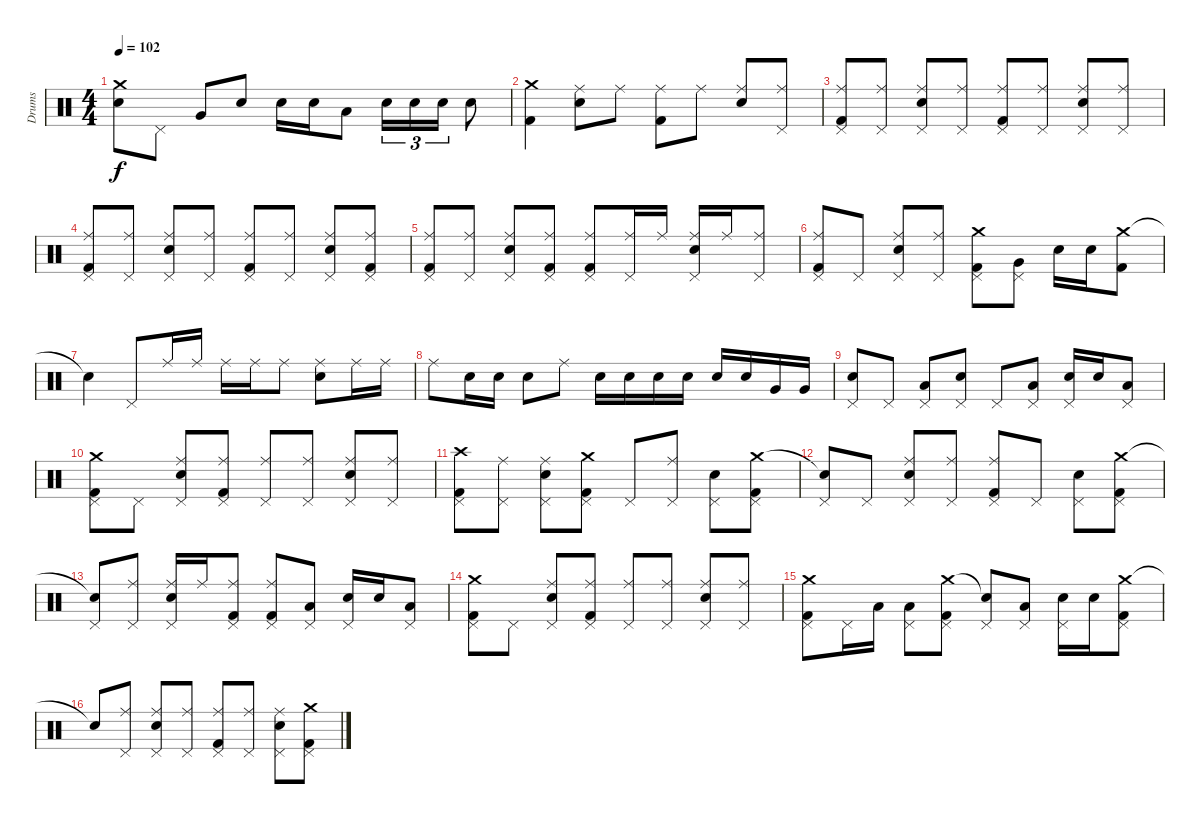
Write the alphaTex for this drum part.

\track ("Drums" "Drums") {instrument percussion}
\staff {score}
\articulation defaults
\ts (4 4)
\tempo 102
\clef neutral
\ks c
("Crash medium (hit)" "Snare (hit) 2").8{dy f} "Pedal Hi-Hat (hit)".8 "Very Low Tom (hit)".8 "Snare (hit) 2".8 "Snare (hit) 2".16 "Snare (hit) 2".16 "Low Tom (hit)".8 "Snare (hit) 2".16{tu (3 2)} "Snare (hit) 2".16{tu (3 2)} "Snare (hit) 2".16{tu (3 2)} "Snare (hit) 2".8 |
("Crash medium (hit)" "Kick (hit) 2").4 ("Ride (middle)" "Snare (hit) 2").8 "Ride (middle)".8 ("Ride (middle)" "Kick (hit) 2").8 "Ride (middle)".8 ("Ride (middle)" "Snare (hit) 2").8 ("Ride (middle)" "Pedal Hi-Hat (hit)").8 |
("Ride (middle)" "Pedal Hi-Hat (hit)" "Kick (hit) 2").8 ("Ride (middle)" "Pedal Hi-Hat (hit)").8 ("Ride (middle)" "Pedal Hi-Hat (hit)" "Snare (hit) 2").8 ("Ride (middle)" "Pedal Hi-Hat (hit)").8 ("Ride (middle)" "Pedal Hi-Hat (hit)" "Kick (hit) 2").8 ("Ride (middle)" "Pedal Hi-Hat (hit)").8 ("Ride (middle)" "Pedal Hi-Hat (hit)" "Snare (hit) 2").8 ("Ride (middle)" "Pedal Hi-Hat (hit)").8 |
("Ride (middle)" "Pedal Hi-Hat (hit)" "Kick (hit) 2").8 ("Ride (middle)" "Pedal Hi-Hat (hit)").8 ("Ride (middle)" "Pedal Hi-Hat (hit)" "Snare (hit) 2").8 ("Ride (middle)" "Pedal Hi-Hat (hit)").8 ("Ride (middle)" "Pedal Hi-Hat (hit)" "Kick (hit) 2").8 ("Ride (middle)" "Pedal Hi-Hat (hit)").8 ("Ride (middle)" "Pedal Hi-Hat (hit)" "Snare (hit) 2").8 ("Ride (middle)" "Pedal Hi-Hat (hit)" "Kick (hit) 2").8 |
("Ride (middle)" "Pedal Hi-Hat (hit)" "Kick (hit) 2").8 ("Ride (middle)" "Pedal Hi-Hat (hit)").8 ("Ride (middle)" "Pedal Hi-Hat (hit)" "Snare (hit) 2").8 ("Ride (middle)" "Pedal Hi-Hat (hit)" "Kick (hit) 2").8 ("Ride (middle)" "Pedal Hi-Hat (hit)" "Kick (hit) 2").8 ("Ride (middle)" "Pedal Hi-Hat (hit)").16 "Ride (middle)".16 ("Ride (middle)" "Pedal Hi-Hat (hit)" "Snare (hit) 2").16 "Ride (middle)".16 ("Ride (middle)" "Pedal Hi-Hat (hit)").8 |
("Ride (middle)" "Pedal Hi-Hat (hit)" "Kick (hit) 2").8 "Pedal Hi-Hat (hit)".8 ("Ride (middle)" "Pedal Hi-Hat (hit)" "Snare (hit) 2").8 ("Ride (middle)" "Pedal Hi-Hat (hit)").8 ("Crash medium (hit)" "Pedal Hi-Hat (hit)" "Kick (hit) 2").8 ("Pedal Hi-Hat (hit)" "Very Low Tom (hit)").8 "Snare (hit) 2".16 "Snare (hit) 2".16 ("Crash medium (hit)" "Kick (hit) 2").8 |
"Snare (hit)"{t}.4 "Pedal Hi-Hat (hit)".8 "Ride (middle)".16 "Ride (middle)".16 "Ride (middle)".16 "Ride (middle)".16 "Ride (middle)".8 ("Ride (middle)" "Snare (hit) 2").8 "Ride (middle)".16 "Ride (middle)".16 |
"Ride (middle)".8 "Snare (hit) 2".16 "Snare (hit) 2".16 "Snare (hit) 2".8 "Ride (middle)".8 "Snare (hit) 2".16 "Snare (hit) 2".16 "Snare (hit) 2".16 "Snare (hit) 2".16 "Snare (hit) 2".16 "Snare (hit) 2".16 "Very Low Tom (hit)".16 "Very Low Tom (hit)".16 |
("Pedal Hi-Hat (hit)" "Snare (hit) 2").8 "Pedal Hi-Hat (hit)".8 ("Pedal Hi-Hat (hit)" "Low Tom (hit)").8 ("Pedal Hi-Hat (hit)" "Snare (hit) 2").8 "Pedal Hi-Hat (hit)".8 ("Pedal Hi-Hat (hit)" "Low Tom (hit)").8 ("Pedal Hi-Hat (hit)" "Snare (hit) 2").16 "Snare (hit) 2".16 ("Pedal Hi-Hat (hit)" "Low Tom (hit)").8 |
("Crash medium (hit)" "Pedal Hi-Hat (hit)" "Kick (hit) 2").8 "Pedal Hi-Hat (hit)".8 ("Ride (middle)" "Pedal Hi-Hat (hit)" "Snare (hit) 2").8 ("Ride (middle)" "Pedal Hi-Hat (hit)" "Kick (hit) 2").8 ("Ride (middle)" "Pedal Hi-Hat (hit)").8 ("Ride (middle)" "Pedal Hi-Hat (hit)").8 ("Ride (middle)" "Pedal Hi-Hat (hit)" "Snare (hit) 2").8 ("Ride (middle)" "Pedal Hi-Hat (hit)").8 |
("Crash high (hit)" "Pedal Hi-Hat (hit)" "Kick (hit) 2").8 ("Ride (middle)" "Pedal Hi-Hat (hit)").8 ("Ride (middle)" "Pedal Hi-Hat (hit)" "Snare (hit) 2").8 ("Crash medium (hit)" "Pedal Hi-Hat (hit)" "Kick (hit) 2").8 "Pedal Hi-Hat (hit)".8 ("Ride (middle)" "Pedal Hi-Hat (hit)").8 ("Pedal Hi-Hat (hit)" "Snare (hit) 2").8 ("Crash medium (hit)" "Pedal Hi-Hat (hit)" "Kick (hit) 2").8 |
("Snare (hit)"{t} "Pedal Hi-Hat (hit)").8 "Pedal Hi-Hat (hit)".8 ("Ride (middle)" "Pedal Hi-Hat (hit)" "Snare (hit) 2").8 ("Ride (middle)" "Pedal Hi-Hat (hit)").8 ("Ride (middle)" "Pedal Hi-Hat (hit)" "Kick (hit) 2").8 "Pedal Hi-Hat (hit)".8 ("Pedal Hi-Hat (hit)" "Snare (hit) 2").8 ("Crash medium (hit)" "Pedal Hi-Hat (hit)" "Kick (hit) 2").8 |
("Snare (hit)"{t} "Pedal Hi-Hat (hit)").8 ("Ride (middle)" "Pedal Hi-Hat (hit)").8 ("Ride (middle)" "Pedal Hi-Hat (hit)" "Snare (hit) 2").16 "Ride (middle)".16 ("Ride (middle)" "Pedal Hi-Hat (hit)" "Kick (hit) 2").8 ("Ride (middle)" "Pedal Hi-Hat (hit)" "Kick (hit) 2").8 ("Pedal Hi-Hat (hit)" "Low Tom (hit)").8 ("Pedal Hi-Hat (hit)" "Snare (hit) 2").16 "Snare (hit) 2".16 ("Pedal Hi-Hat (hit)" "Low Tom (hit)").8 |
("Crash medium (hit)" "Pedal Hi-Hat (hit)" "Kick (hit) 2").8 "Pedal Hi-Hat (hit)".8 ("Ride (middle)" "Pedal Hi-Hat (hit)" "Snare (hit) 2").8 ("Ride (middle)" "Pedal Hi-Hat (hit)" "Kick (hit) 2").8 ("Ride (middle)" "Pedal Hi-Hat (hit)").8 ("Ride (middle)" "Pedal Hi-Hat (hit)").8 ("Ride (middle)" "Pedal Hi-Hat (hit)" "Snare (hit) 2").8 ("Ride (middle)" "Pedal Hi-Hat (hit)").8 |
("Crash medium (hit)" "Pedal Hi-Hat (hit)" "Kick (hit) 2").8 "Pedal Hi-Hat (hit)".16 "Low Tom (hit)".16 ("Pedal Hi-Hat (hit)" "Low Tom (hit)").8 ("Crash medium (hit)" "Pedal Hi-Hat (hit)" "Kick (hit) 2").8 ("Snare (hit)"{t} "Pedal Hi-Hat (hit)").8 ("Pedal Hi-Hat (hit)" "Low Tom (hit)").8 ("Pedal Hi-Hat (hit)" "Snare (hit) 2").16 "Snare (hit) 2".16 ("Crash medium (hit)" "Pedal Hi-Hat (hit)" "Kick (hit) 2").8 |
"Snare (hit)"{t}.8 ("Ride (middle)" "Pedal Hi-Hat (hit)").8 ("Ride (middle)" "Pedal Hi-Hat (hit)" "Snare (hit) 2").8 ("Ride (middle)" "Pedal Hi-Hat (hit)").8 ("Ride (middle)" "Pedal Hi-Hat (hit)" "Kick (hit) 2").8 ("Ride (middle)" "Pedal Hi-Hat (hit)").8 ("Ride (middle)" "Pedal Hi-Hat (hit)" "Snare (hit) 2").8 ("Crash medium (hit)" "Pedal Hi-Hat (hit)" "Kick (hit) 2").8
